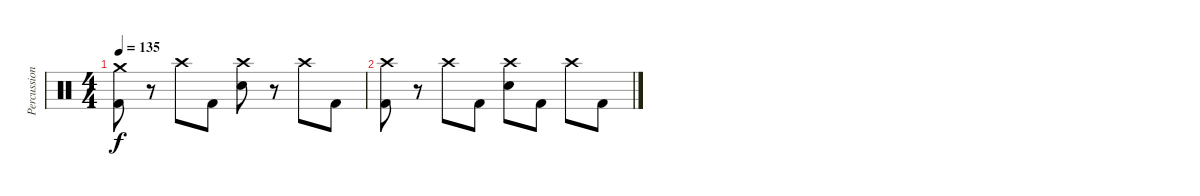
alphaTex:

\track ("Percussion" "Percussion") {instrument percussion}
\staff {score}
\articulation defaults
\ts (4 4)
\tempo 135
\clef neutral
\ks c
("Crash medium (hit)" "Kick (hit) 2").8{dy f} r.8 "Crash high (hit)".8 "Kick (hit) 2".8 ("Crash high (hit)" "Snare (hit) 2").8 r.8 "Crash high (hit)".8 "Kick (hit) 2".8 |
("Crash high (hit)" "Kick (hit) 2").8 r.8 "Crash high (hit)".8 "Kick (hit) 2".8 ("Crash high (hit)" "Snare (hit) 2").8 "Kick (hit) 2".8 "Crash high (hit)".8 "Kick (hit) 2".8
